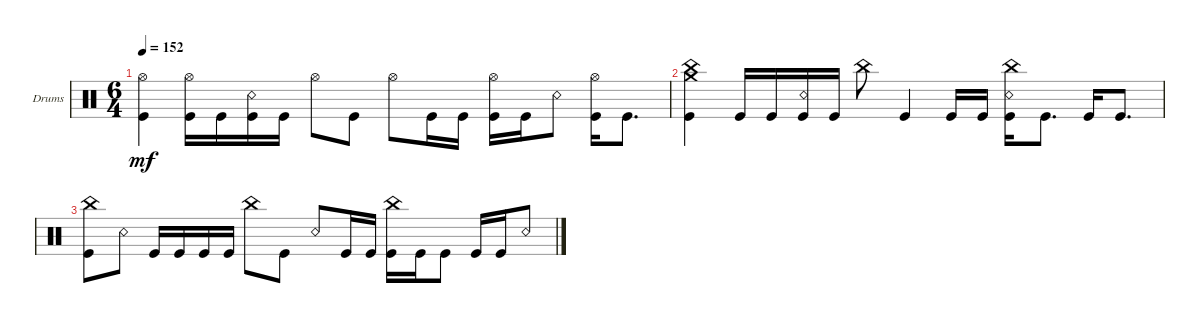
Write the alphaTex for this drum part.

\defaultSystemsLayout 4
\bracketExtendMode groupsimilarinstruments
\firstSystemTrackNameOrientation horizontal
\otherSystemsTrackNameOrientation horizontal
\track ("Drumkit" "Drums") {instrument percussion}
\staff {score}
\articulation defaults
\ts (6 4)
\tempo 152
\clef neutral
\ks c
("Kick (hit)" "Hi-Hat (open)").4{dy mf} ("Hi-Hat (open)" "Kick (hit)").16 "Kick (hit)".16 ("Kick (hit)" "Snare (rim shot)").16 "Kick (hit)".16 "Hi-Hat (open)".8 "Kick (hit)".8 "Hi-Hat (open)".8 "Kick (hit)".16 "Kick (hit)".16 ("Kick (hit)" "Hi-Hat (open)").16 "Kick (hit)".16 "Snare (rim shot)".8 ("Hi-Hat (open)" "Kick (hit)").16 "Kick (hit)".8{d} |
("Crash medium (hit)" "Kick (hit)" "China (hit)").4 "Kick (hit)".16 "Kick (hit)".16 ("Kick (hit)" "Snare (rim shot)").16 "Kick (hit)".16 "China (hit)".8 "Kick (hit)".4 "Kick (hit)".16 "Kick (hit)".16 ("Kick (hit)" "Snare (rim shot)" "China (hit)").16 "Kick (hit)".8{d} "Kick (hit)".16 "Kick (hit)".8{d} |
("Kick (hit)" "China (hit)").8 "Snare (rim shot)".8 "Kick (hit)".16 "Kick (hit)".16 "Kick (hit)".16 "Kick (hit)".16 "China (hit)".8 "Kick (hit)".8 "Snare (rim shot)".8 "Kick (hit)".16 "Kick (hit)".16 ("Kick (hit)" "China (hit)").16 "Kick (hit)".16 "Kick (hit)".8 "Kick (hit)".16 "Kick (hit)".16 "Snare (rim shot)".8
